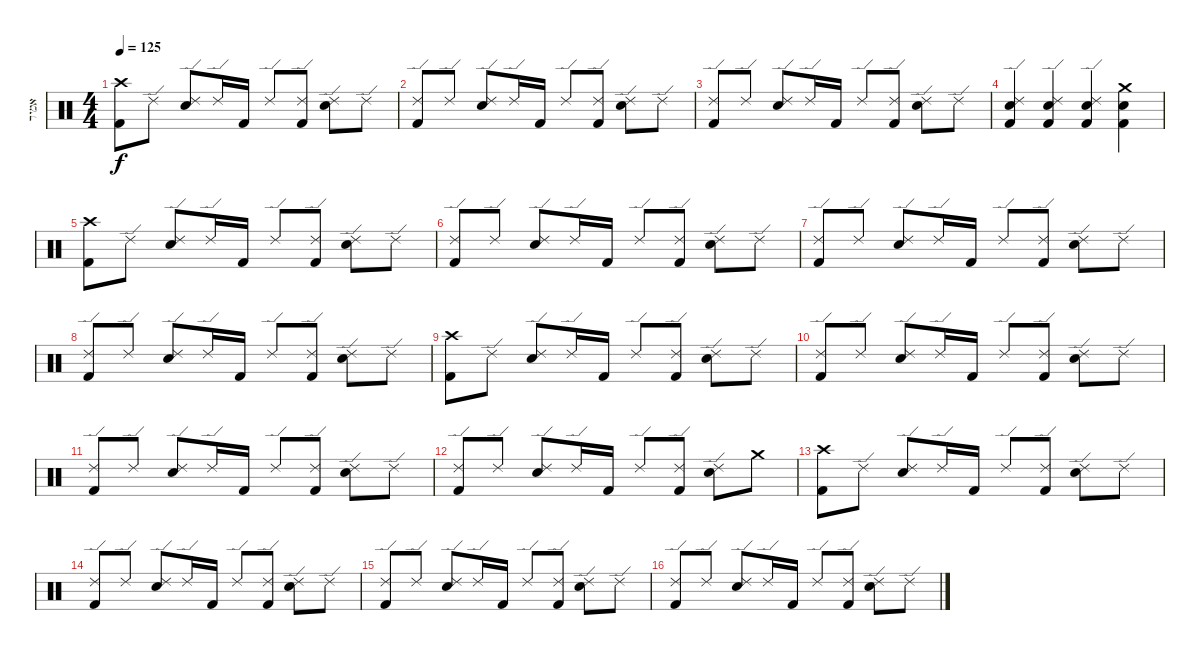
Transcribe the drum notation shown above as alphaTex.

\track ("אמיר" "אמיר") {instrument percussion}
\staff {score}
\articulation defaults
\ts (4 4)
\tempo 125
\clef neutral
\ks c
("Crash high (hit)" "Kick (hit) 2").8{dy f} "Ride (edge) 2".8 ("Ride (edge) 2" "Snare (hit) 2").8 "Ride (edge) 2".16 "Kick (hit) 2".16 "Ride (edge) 2".8 ("Ride (edge) 2" "Kick (hit) 2").8 ("Ride (edge) 2" "Snare (hit) 2").8 "Ride (edge) 2".8 |
("Ride (edge) 2" "Kick (hit) 2").8 "Ride (edge) 2".8 ("Ride (edge) 2" "Snare (hit) 2").8 "Ride (edge) 2".16 "Kick (hit) 2".16 "Ride (edge) 2".8 ("Ride (edge) 2" "Kick (hit) 2").8 ("Ride (edge) 2" "Snare (hit) 2").8 "Ride (edge) 2".8 |
("Ride (edge) 2" "Kick (hit) 2").8 "Ride (edge) 2".8 ("Ride (edge) 2" "Snare (hit) 2").8 "Ride (edge) 2".16 "Kick (hit) 2".16 "Ride (edge) 2".8 ("Ride (edge) 2" "Kick (hit) 2").8 ("Ride (edge) 2" "Snare (hit) 2").8 "Ride (edge) 2".8 |
("Ride (edge) 2" "Snare (hit) 2" "Kick (hit) 2").4 ("Ride (edge) 2" "Snare (hit) 2" "Kick (hit) 2").4 ("Ride (edge) 2" "Snare (hit) 2" "Kick (hit) 2").4 ("Crash medium (hit)" "Snare (hit) 2" "Kick (hit) 2").4 |
("Crash high (hit)" "Kick (hit) 2").8 "Ride (edge) 2".8 ("Ride (edge) 2" "Snare (hit) 2").8 "Ride (edge) 2".16 "Kick (hit) 2".16 "Ride (edge) 2".8 ("Ride (edge) 2" "Kick (hit) 2").8 ("Ride (edge) 2" "Snare (hit) 2").8 "Ride (edge) 2".8 |
("Ride (edge) 2" "Kick (hit) 2").8 "Ride (edge) 2".8 ("Ride (edge) 2" "Snare (hit) 2").8 "Ride (edge) 2".16 "Kick (hit) 2".16 "Ride (edge) 2".8 ("Ride (edge) 2" "Kick (hit) 2").8 ("Ride (edge) 2" "Snare (hit) 2").8 "Ride (edge) 2".8 |
("Ride (edge) 2" "Kick (hit) 2").8 "Ride (edge) 2".8 ("Ride (edge) 2" "Snare (hit) 2").8 "Ride (edge) 2".16 "Kick (hit) 2".16 "Ride (edge) 2".8 ("Ride (edge) 2" "Kick (hit) 2").8 ("Ride (edge) 2" "Snare (hit) 2").8 "Ride (edge) 2".8 |
("Ride (edge) 2" "Kick (hit) 2").8 "Ride (edge) 2".8 ("Ride (edge) 2" "Snare (hit) 2").8 "Ride (edge) 2".16 "Kick (hit) 2".16 "Ride (edge) 2".8 ("Ride (edge) 2" "Kick (hit) 2").8 ("Ride (edge) 2" "Snare (hit) 2").8 "Ride (edge) 2".8 |
("Crash high (hit)" "Kick (hit) 2").8 "Ride (edge) 2".8 ("Ride (edge) 2" "Snare (hit) 2").8 "Ride (edge) 2".16 "Kick (hit) 2".16 "Ride (edge) 2".8 ("Ride (edge) 2" "Kick (hit) 2").8 ("Ride (edge) 2" "Snare (hit) 2").8 "Ride (edge) 2".8 |
("Ride (edge) 2" "Kick (hit) 2").8 "Ride (edge) 2".8 ("Ride (edge) 2" "Snare (hit) 2").8 "Ride (edge) 2".16 "Kick (hit) 2".16 "Ride (edge) 2".8 ("Ride (edge) 2" "Kick (hit) 2").8 ("Ride (edge) 2" "Snare (hit) 2").8 "Ride (edge) 2".8 |
("Ride (edge) 2" "Kick (hit) 2").8 "Ride (edge) 2".8 ("Ride (edge) 2" "Snare (hit) 2").8 "Ride (edge) 2".16 "Kick (hit) 2".16 "Ride (edge) 2".8 ("Ride (edge) 2" "Kick (hit) 2").8 ("Ride (edge) 2" "Snare (hit) 2").8 "Ride (edge) 2".8 |
("Ride (edge) 2" "Kick (hit) 2").8 "Ride (edge) 2".8 ("Ride (edge) 2" "Snare (hit) 2").8 "Ride (edge) 2".16 "Kick (hit) 2".16 "Ride (edge) 2".8 ("Ride (edge) 2" "Kick (hit) 2").8 ("Ride (edge) 2" "Snare (hit) 2").8 "Crash medium (hit)".8 |
("Crash high (hit)" "Kick (hit) 2").8 "Ride (edge) 2".8 ("Ride (edge) 2" "Snare (hit) 2").8 "Ride (edge) 2".16 "Kick (hit) 2".16 "Ride (edge) 2".8 ("Ride (edge) 2" "Kick (hit) 2").8 ("Ride (edge) 2" "Snare (hit) 2").8 "Ride (edge) 2".8 |
("Ride (edge) 2" "Kick (hit) 2").8 "Ride (edge) 2".8 ("Ride (edge) 2" "Snare (hit) 2").8 "Ride (edge) 2".16 "Kick (hit) 2".16 "Ride (edge) 2".8 ("Ride (edge) 2" "Kick (hit) 2").8 ("Ride (edge) 2" "Snare (hit) 2").8 "Ride (edge) 2".8 |
("Ride (edge) 2" "Kick (hit) 2").8 "Ride (edge) 2".8 ("Ride (edge) 2" "Snare (hit) 2").8 "Ride (edge) 2".16 "Kick (hit) 2".16 "Ride (edge) 2".8 ("Ride (edge) 2" "Kick (hit) 2").8 ("Ride (edge) 2" "Snare (hit) 2").8 "Ride (edge) 2".8 |
("Ride (edge) 2" "Kick (hit) 2").8 "Ride (edge) 2".8 ("Ride (edge) 2" "Snare (hit) 2").8 "Ride (edge) 2".16 "Kick (hit) 2".16 "Ride (edge) 2".8 ("Ride (edge) 2" "Kick (hit) 2").8 ("Ride (edge) 2" "Snare (hit) 2").8 "Ride (edge) 2".8
